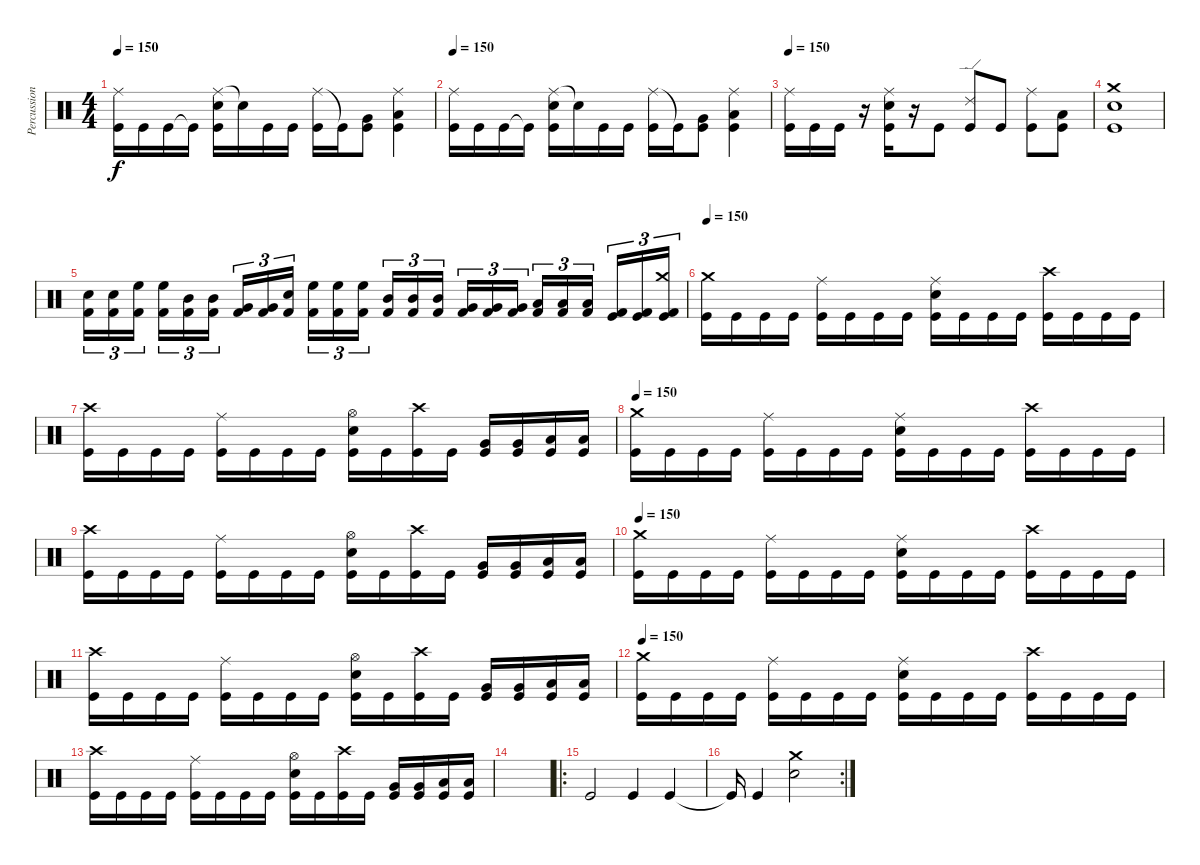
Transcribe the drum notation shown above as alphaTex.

\track ("Percussion" "Percussion") {instrument percussion}
\staff {score}
\articulation defaults
\ts (4 4)
\tempo 150
\clef neutral
\ks c
("Ride (middle)" "Kick (hit)").16{dy f} "Kick (hit)".16 "Kick (hit)".16 "Kick (hit)"{t}.16 ("Ride (middle)" "Electric Snare (hit)" "Kick (hit)").16 "Snare (hit)"{t}.16 "Kick (hit)".16 "Kick (hit)".16 ("Ride (middle)" "Kick (hit)").16 "Kick (hit)"{t}.16 ("Very Low Tom (hit)" "Kick (hit)").8 ("Ride (middle)" "Low Floor Tom (hit)" "Kick (hit)").4 |
\tempo 150
("Ride (middle)" "Kick (hit)").16 "Kick (hit)".16 "Kick (hit)".16 "Kick (hit)"{t}.16 ("Ride (middle)" "Electric Snare (hit)" "Kick (hit)").16 "Snare (hit)"{t}.16 "Kick (hit)".16 "Kick (hit)".16 ("Ride (middle)" "Kick (hit)").16 "Kick (hit)"{t}.16 ("Very Low Tom (hit)" "Kick (hit)").8 ("Ride (middle)" "Low Floor Tom (hit)" "Kick (hit)").4 |
\tempo 150
("Ride (middle)" "Kick (hit)").16 "Kick (hit)".16 "Kick (hit)".16 r.16 ("Ride (middle)" "Electric Snare (hit)" "Kick (hit)").16 r.16 "Kick (hit)".8 ("Ride (edge) 2" "Kick (hit)").8 "Kick (hit)".8 ("Ride (middle)" "Kick (hit)").8 ("Low Floor Tom (hit)" "Kick (hit)").8 |
("Electric Snare (hit)" "Crash medium (hit)" "Kick (hit)").1 |
("Kick (hit) 2" "Electric Snare (hit)").16{tu (3 2)} ("Kick (hit) 2" "Electric Snare (hit)").16{tu (3 2)} ("Kick (hit) 2" "High Floor Tom (hit)").16{tu (3 2) beam splitsecondary} ("Kick (hit) 2" "High Floor Tom (hit)").16{tu (3 2)} ("Kick (hit) 2" "Mid Tom (hit)").16{tu (3 2)} ("Kick (hit) 2" "Mid Tom (hit)").16{tu (3 2)} ("Kick (hit) 2" "Very Low Tom (hit)").16{tu (3 2)} ("Kick (hit) 2" "Very Low Tom (hit)").16{tu (3 2)} ("Kick (hit) 2" "Electric Snare (hit)").16{tu (3 2) beam splitsecondary} ("Kick (hit) 2" "High Floor Tom (hit)").16{tu (3 2)} ("Kick (hit) 2" "High Floor Tom (hit)").16{tu (3 2)} ("Kick (hit) 2" "High Floor Tom (hit)").16{tu (3 2)} ("Kick (hit) 2" "Mid Tom (hit)").16{tu (3 2)} ("Kick (hit) 2" "Mid Tom (hit)").16{tu (3 2)} ("Kick (hit) 2" "Mid Tom (hit)").16{tu (3 2) beam splitsecondary} ("Kick (hit) 2" "Very Low Tom (hit)").16{tu (3 2)} ("Kick (hit) 2" "Very Low Tom (hit)").16{tu (3 2)} ("Kick (hit) 2" "Very Low Tom (hit)").16{tu (3 2)} ("Kick (hit) 2" "Low Floor Tom (hit)").16{tu (3 2)} ("Kick (hit) 2" "Low Floor Tom (hit)").16{tu (3 2)} ("Kick (hit) 2" "Low Floor Tom (hit)").16{tu (3 2) beam splitsecondary} ("Kick (hit) 2" "Kick (hit)").16{tu (3 2)} ("Kick (hit) 2" "Kick (hit)").16{tu (3 2)} ("Kick (hit) 2" "Crash medium (hit)" "Kick (hit)").16{tu (3 2)} |
\tempo 150
("Crash medium (hit)" "Kick (hit)").16 "Kick (hit)".16 "Kick (hit)".16 "Kick (hit)".16 ("Ride (middle)" "Kick (hit)").16 "Kick (hit)".16 "Kick (hit)".16 "Kick (hit)".16 ("Ride (middle)" "Electric Snare (hit)" "Kick (hit)").16 "Kick (hit)".16 "Kick (hit)".16 "Kick (hit)".16 ("Crash high (hit)" "Kick (hit)").16 "Kick (hit)".16 "Kick (hit)".16 "Kick (hit)".16 |
("Crash high (hit)" "Kick (hit)").16 "Kick (hit)".16 "Kick (hit)".16 "Kick (hit)".16 ("Ride (middle)" "Kick (hit)").16 "Kick (hit)".16 "Kick (hit)".16 "Kick (hit)".16 ("Hi-Hat (open)" "Electric Snare (hit)" "Kick (hit)").16 "Kick (hit)".16 ("Crash high (hit)" "Kick (hit)").16 "Kick (hit)".16 ("Very Low Tom (hit)" "Kick (hit)").16 ("Very Low Tom (hit)" "Kick (hit)").16 ("Low Floor Tom (hit)" "Kick (hit)").16 ("Low Floor Tom (hit)" "Kick (hit)").16 |
\tempo 150
("Crash medium (hit)" "Kick (hit)").16 "Kick (hit)".16 "Kick (hit)".16 "Kick (hit)".16 ("Ride (middle)" "Kick (hit)").16 "Kick (hit)".16 "Kick (hit)".16 "Kick (hit)".16 ("Ride (middle)" "Electric Snare (hit)" "Kick (hit)").16 "Kick (hit)".16 "Kick (hit)".16 "Kick (hit)".16 ("Crash high (hit)" "Kick (hit)").16 "Kick (hit)".16 "Kick (hit)".16 "Kick (hit)".16 |
("Crash high (hit)" "Kick (hit)").16 "Kick (hit)".16 "Kick (hit)".16 "Kick (hit)".16 ("Ride (middle)" "Kick (hit)").16 "Kick (hit)".16 "Kick (hit)".16 "Kick (hit)".16 ("Hi-Hat (open)" "Electric Snare (hit)" "Kick (hit)").16 "Kick (hit)".16 ("Crash high (hit)" "Kick (hit)").16 "Kick (hit)".16 ("Very Low Tom (hit)" "Kick (hit)").16 ("Very Low Tom (hit)" "Kick (hit)").16 ("Low Floor Tom (hit)" "Kick (hit)").16 ("Low Floor Tom (hit)" "Kick (hit)").16 |
\tempo 150
("Crash medium (hit)" "Kick (hit)").16 "Kick (hit)".16 "Kick (hit)".16 "Kick (hit)".16 ("Ride (middle)" "Kick (hit)").16 "Kick (hit)".16 "Kick (hit)".16 "Kick (hit)".16 ("Ride (middle)" "Electric Snare (hit)" "Kick (hit)").16 "Kick (hit)".16 "Kick (hit)".16 "Kick (hit)".16 ("Crash high (hit)" "Kick (hit)").16 "Kick (hit)".16 "Kick (hit)".16 "Kick (hit)".16 |
("Crash high (hit)" "Kick (hit)").16 "Kick (hit)".16 "Kick (hit)".16 "Kick (hit)".16 ("Ride (middle)" "Kick (hit)").16 "Kick (hit)".16 "Kick (hit)".16 "Kick (hit)".16 ("Hi-Hat (open)" "Electric Snare (hit)" "Kick (hit)").16 "Kick (hit)".16 ("Crash high (hit)" "Kick (hit)").16 "Kick (hit)".16 ("Very Low Tom (hit)" "Kick (hit)").16 ("Very Low Tom (hit)" "Kick (hit)").16 ("Low Floor Tom (hit)" "Kick (hit)").16 ("Low Floor Tom (hit)" "Kick (hit)").16 |
\tempo 150
("Crash medium (hit)" "Kick (hit)").16 "Kick (hit)".16 "Kick (hit)".16 "Kick (hit)".16 ("Ride (middle)" "Kick (hit)").16 "Kick (hit)".16 "Kick (hit)".16 "Kick (hit)".16 ("Ride (middle)" "Electric Snare (hit)" "Kick (hit)").16 "Kick (hit)".16 "Kick (hit)".16 "Kick (hit)".16 ("Crash high (hit)" "Kick (hit)").16 "Kick (hit)".16 "Kick (hit)".16 "Kick (hit)".16 |
("Crash high (hit)" "Kick (hit)").16 "Kick (hit)".16 "Kick (hit)".16 "Kick (hit)".16 ("Ride (middle)" "Kick (hit)").16 "Kick (hit)".16 "Kick (hit)".16 "Kick (hit)".16 ("Hi-Hat (open)" "Electric Snare (hit)" "Kick (hit)").16 "Kick (hit)".16 ("Crash high (hit)" "Kick (hit)").16 "Kick (hit)".16 ("Very Low Tom (hit)" "Kick (hit)").16 ("Very Low Tom (hit)" "Kick (hit)").16 ("Low Floor Tom (hit)" "Kick (hit)").16 ("Low Floor Tom (hit)" "Kick (hit)").16 |
|
\ro "Kick (hit)".2 "Kick (hit)".4 "Kick (hit)".4
|
\rc 2 "Kick (hit)"{t}.16 "Kick (hit)".4
("Crash medium (hit)" "Electric Snare (hit)").2
